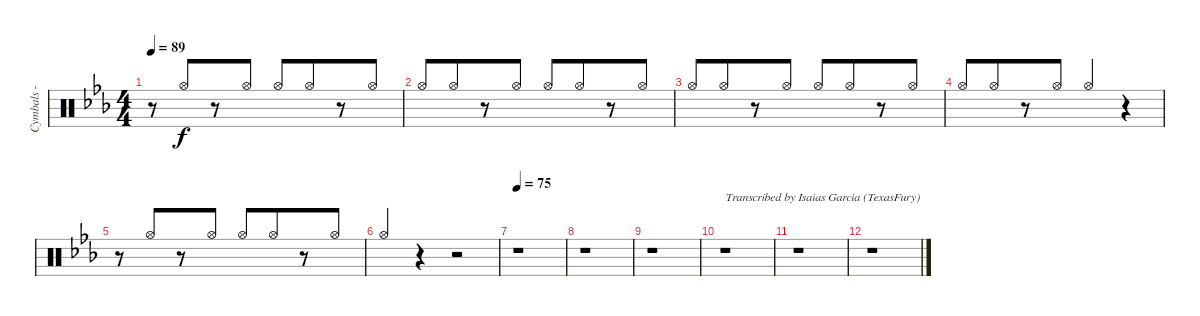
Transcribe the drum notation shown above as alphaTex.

\track ("Cymbals - hi-hat" "Cymbals - ") {instrument percussion}
\staff {score}
\articulation defaults
\ts (4 4)
\tempo 89
\clef neutral
\ks eb
r.8{dy f} "Hi-Hat (open)".8{beam Up beam merge} r.8 "Hi-Hat (open)".8{beam Up} "Hi-Hat (open)".8{beam Up} "Hi-Hat (open)".8{beam Up beam merge} r.8 "Hi-Hat (open)".8{beam Up} |
"Hi-Hat (open)".8{beam Up} "Hi-Hat (open)".8{beam Up beam merge} r.8 "Hi-Hat (open)".8{beam Up} "Hi-Hat (open)".8{beam Up} "Hi-Hat (open)".8{beam Up beam merge} r.8 "Hi-Hat (open)".8{beam Up} |
"Hi-Hat (open)".8{beam Up} "Hi-Hat (open)".8{beam Up beam merge} r.8 "Hi-Hat (open)".8{beam Up} "Hi-Hat (open)".8{beam Up} "Hi-Hat (open)".8{beam Up beam merge} r.8 "Hi-Hat (open)".8{beam Up} |
"Hi-Hat (open)".8{beam Up} "Hi-Hat (open)".8{beam Up beam merge} r.8 "Hi-Hat (open)".8{beam Up} "Hi-Hat (open)".4{beam Up} r.4 |
r.8 "Hi-Hat (open)".8{beam Up beam merge} r.8 "Hi-Hat (open)".8{beam Up} "Hi-Hat (open)".8{beam Up} "Hi-Hat (open)".8{beam Up beam merge} r.8 "Hi-Hat (open)".8{beam Up} |
"Hi-Hat (open)".4{beam Up} r.4 r.2 |
\tempo 75
r.1 |
r.1 |
r.1 |
r.1{txt "Transcribed by Isaias Garcia (TexasFury)"} |
r.1 |
r.1
